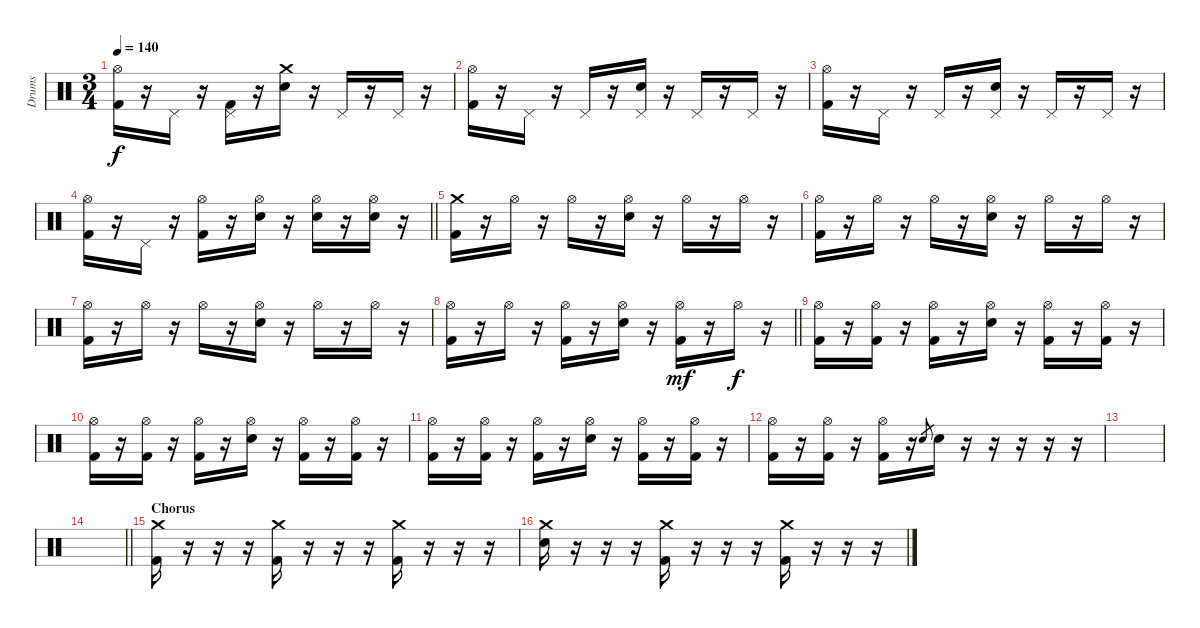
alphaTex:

\track ("Drums" "Drums") {instrument percussion}
\staff {score}
\articulation defaults
\ts (3 4)
\tempo 140
\clef neutral
\ks c
("Hi-Hat (open)" "Kick (hit) 2").16{dy f} r.16 "Pedal Hi-Hat (hit)".16 r.16 ("Pedal Hi-Hat (hit)" "Kick (hit) 2").16 r.16 ("Crash medium (hit)" "Electric Snare (hit)").16 r.16 "Pedal Hi-Hat (hit)".16 r.16 "Pedal Hi-Hat (hit)".16 r.16 |
("Hi-Hat (open)" "Kick (hit) 2").16 r.16 "Pedal Hi-Hat (hit)".16 r.16 "Pedal Hi-Hat (hit)".16 r.16 ("Pedal Hi-Hat (hit)" "Electric Snare (hit)").16 r.16 "Pedal Hi-Hat (hit)".16 r.16 "Pedal Hi-Hat (hit)".16 r.16 |
("Hi-Hat (open)" "Kick (hit) 2").16 r.16 "Pedal Hi-Hat (hit)".16 r.16 "Pedal Hi-Hat (hit)".16 r.16 ("Pedal Hi-Hat (hit)" "Electric Snare (hit)").16 r.16 "Pedal Hi-Hat (hit)".16 r.16 "Pedal Hi-Hat (hit)".16 r.16 |
\barLineRight lightlight
("Hi-Hat (open)" "Kick (hit) 2").16 r.16 "Pedal Hi-Hat (hit)".16 r.16 ("Hi-Hat (open)" "Kick (hit) 2").16 r.16 ("Hi-Hat (open)" "Electric Snare (hit)").16 r.16 ("Hi-Hat (open)" "Electric Snare (hit)").16 r.16 ("Hi-Hat (open)" "Electric Snare (hit)").16 r.16 |
\section ("" "")
("Crash medium (hit)" "Kick (hit) 2").16 r.16 "Hi-Hat (open)".16 r.16 "Hi-Hat (open)".16 r.16 ("Hi-Hat (open)" "Electric Snare (hit)").16 r.16 "Hi-Hat (open)".16 r.16 "Hi-Hat (open)".16 r.16 |
("Hi-Hat (open)" "Kick (hit) 2").16 r.16 "Hi-Hat (open)".16 r.16 "Hi-Hat (open)".16 r.16 ("Hi-Hat (open)" "Electric Snare (hit)").16 r.16 "Hi-Hat (open)".16 r.16 "Hi-Hat (open)".16 r.16 |
("Hi-Hat (open)" "Kick (hit) 2").16 r.16 "Hi-Hat (open)".16 r.16 "Hi-Hat (open)".16 r.16 ("Hi-Hat (open)" "Electric Snare (hit)").16 r.16 "Hi-Hat (open)".16 r.16 "Hi-Hat (open)".16 r.16 |
\barLineRight lightlight
("Hi-Hat (open)" "Kick (hit) 2").16 r.16 "Hi-Hat (open)".16 r.16 ("Hi-Hat (open)" "Kick (hit) 2").16 r.16 ("Hi-Hat (open)" "Electric Snare (hit)").16 r.16 ("Hi-Hat (open)" "Kick (hit) 2").16{dy mf} r.16 "Hi-Hat (open)".16{dy f} r.16 |
\section ("" "")
("Hi-Hat (open)" "Kick (hit) 2").16 r.16 ("Hi-Hat (open)" "Kick (hit) 2").16 r.16 ("Hi-Hat (open)" "Kick (hit) 2").16 r.16 ("Hi-Hat (open)" "Electric Snare (hit)").16 r.16 ("Hi-Hat (open)" "Kick (hit) 2").16 r.16 ("Hi-Hat (open)" "Kick (hit) 2").16 r.16 |
("Hi-Hat (open)" "Kick (hit) 2").16 r.16 ("Hi-Hat (open)" "Kick (hit) 2").16 r.16 ("Hi-Hat (open)" "Kick (hit) 2").16 r.16 ("Hi-Hat (open)" "Electric Snare (hit)").16 r.16 ("Hi-Hat (open)" "Kick (hit) 2").16 r.16 ("Hi-Hat (open)" "Kick (hit) 2").16 r.16 |
("Hi-Hat (open)" "Kick (hit) 2").16 r.16 ("Hi-Hat (open)" "Kick (hit) 2").16 r.16 ("Hi-Hat (open)" "Kick (hit) 2").16 r.16 ("Hi-Hat (open)" "Electric Snare (hit)").16 r.16 ("Hi-Hat (open)" "Kick (hit) 2").16 r.16 ("Hi-Hat (open)" "Kick (hit) 2").16 r.16 |
("Hi-Hat (open)" "Kick (hit) 2").16 r.16 ("Hi-Hat (open)" "Kick (hit) 2").16 r.16 ("Hi-Hat (open)" "Kick (hit) 2").16 r.16 "Electric Snare (hit)".8{gr} "Electric Snare (hit)".16 r.16 r.16 r.16 r.16 r.16 |
|
\barLineRight lightlight
|
\section ("" "Chorus")
("Crash medium (hit)" "Kick (hit) 2").16 r.16 r.16 r.16 ("Crash medium (hit)" "Kick (hit) 2").16 r.16 r.16 r.16 ("Crash medium (hit)" "Kick (hit) 2").16 r.16 r.16 r.16 |
("Crash medium (hit)" "Electric Snare (hit)").16 r.16 r.16 r.16 ("Crash medium (hit)" "Kick (hit) 2").16 r.16 r.16 r.16 ("Crash medium (hit)" "Kick (hit) 2").16 r.16 r.16 r.16
